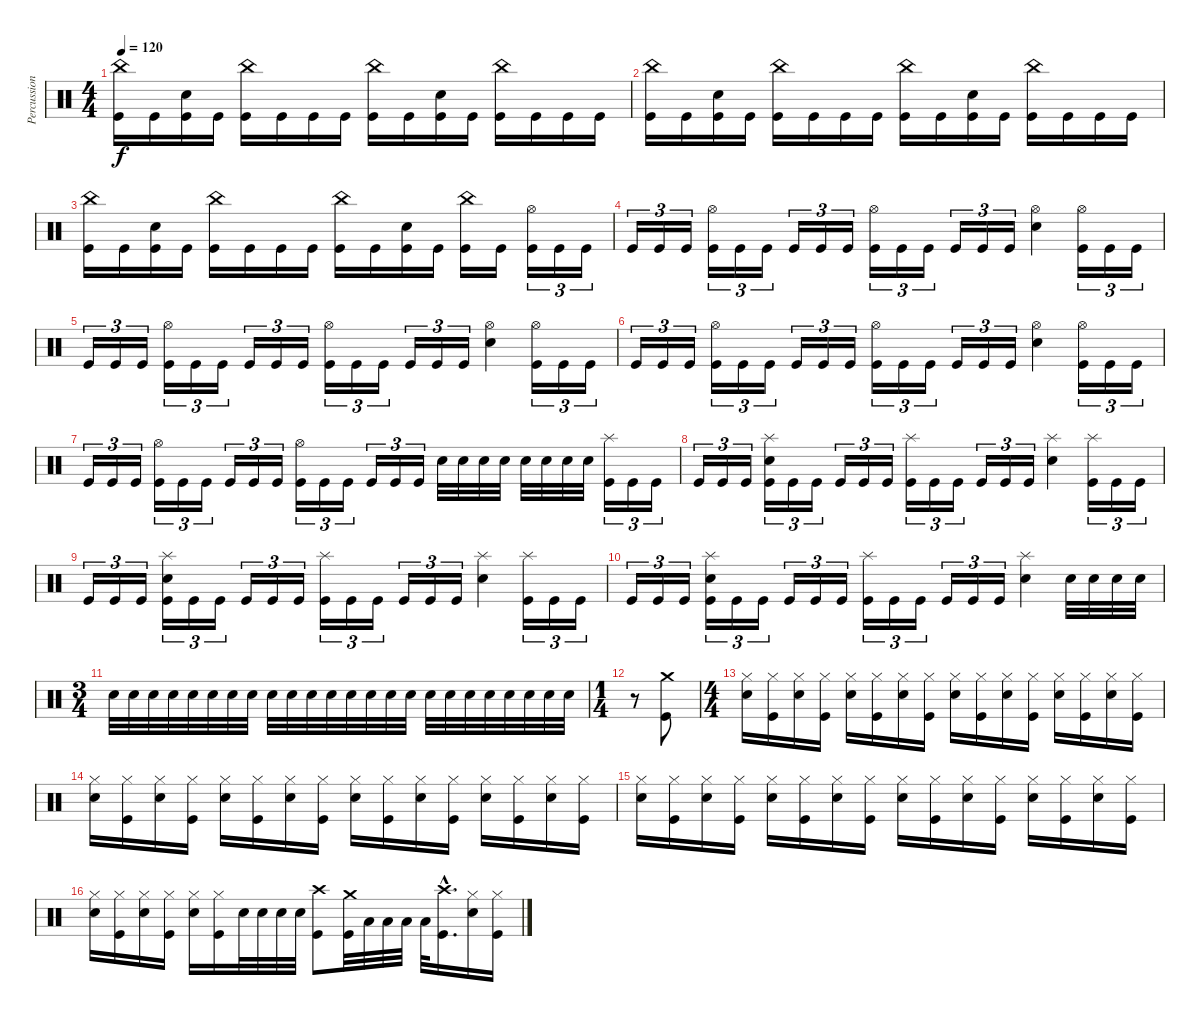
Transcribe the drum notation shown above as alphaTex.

\track ("Percussions" "Percussion") {instrument percussion}
\staff {score}
\articulation defaults
\ts (4 4)
\tempo 120
\clef neutral
\ks c
("Kick (hit)" "China (hit)").16{dy f} "Kick (hit)".16 ("Kick (hit)" "Electric Snare (hit)").16 "Kick (hit)".16 ("Kick (hit)" "China (hit)").16 "Kick (hit)".16 "Kick (hit)".16 "Kick (hit)".16 ("Kick (hit)" "China (hit)").16 "Kick (hit)".16 ("Kick (hit)" "Electric Snare (hit)").16 "Kick (hit)".16 ("Kick (hit)" "China (hit)").16 "Kick (hit)".16 "Kick (hit)".16 "Kick (hit)".16 |
("Kick (hit)" "China (hit)").16 "Kick (hit)".16 ("Kick (hit)" "Electric Snare (hit)").16 "Kick (hit)".16 ("Kick (hit)" "China (hit)").16 "Kick (hit)".16 "Kick (hit)".16 "Kick (hit)".16 ("Kick (hit)" "China (hit)").16 "Kick (hit)".16 ("Kick (hit)" "Electric Snare (hit)").16 "Kick (hit)".16 ("Kick (hit)" "China (hit)").16 "Kick (hit)".16 "Kick (hit)".16 "Kick (hit)".16 |
("Kick (hit)" "China (hit)").16 "Kick (hit)".16 ("Kick (hit)" "Electric Snare (hit)").16 "Kick (hit)".16 ("Kick (hit)" "China (hit)").16 "Kick (hit)".16 "Kick (hit)".16 "Kick (hit)".16 ("Kick (hit)" "China (hit)").16 "Kick (hit)".16 ("Kick (hit)" "Electric Snare (hit)").16 "Kick (hit)".16 ("Kick (hit)" "China (hit)").16 "Kick (hit)".16 ("Kick (hit)" "Hi-Hat (open)").16{tu (3 2)} "Kick (hit)".16{tu (3 2)} "Kick (hit)".16{tu (3 2)} |
"Kick (hit)".16{tu (3 2)} "Kick (hit)".16{tu (3 2)} "Kick (hit)".16{tu (3 2)} ("Kick (hit)" "Hi-Hat (open)").16{tu (3 2)} "Kick (hit)".16{tu (3 2)} "Kick (hit)".16{tu (3 2)} "Kick (hit)".16{tu (3 2)} "Kick (hit)".16{tu (3 2)} "Kick (hit)".16{tu (3 2)} ("Kick (hit)" "Hi-Hat (open)").16{tu (3 2)} "Kick (hit)".16{tu (3 2)} "Kick (hit)".16{tu (3 2)} "Kick (hit)".16{tu (3 2)} "Kick (hit)".16{tu (3 2)} "Kick (hit)".16{tu (3 2)} ("Electric Snare (hit)" "Hi-Hat (open)").4 ("Kick (hit)" "Hi-Hat (open)").16{tu (3 2)} "Kick (hit)".16{tu (3 2)} "Kick (hit)".16{tu (3 2)} |
"Kick (hit)".16{tu (3 2)} "Kick (hit)".16{tu (3 2)} "Kick (hit)".16{tu (3 2)} ("Kick (hit)" "Hi-Hat (open)").16{tu (3 2)} "Kick (hit)".16{tu (3 2)} "Kick (hit)".16{tu (3 2)} "Kick (hit)".16{tu (3 2)} "Kick (hit)".16{tu (3 2)} "Kick (hit)".16{tu (3 2)} ("Kick (hit)" "Hi-Hat (open)").16{tu (3 2)} "Kick (hit)".16{tu (3 2)} "Kick (hit)".16{tu (3 2)} "Kick (hit)".16{tu (3 2)} "Kick (hit)".16{tu (3 2)} "Kick (hit)".16{tu (3 2)} ("Electric Snare (hit)" "Hi-Hat (open)").4 ("Kick (hit)" "Hi-Hat (open)").16{tu (3 2)} "Kick (hit)".16{tu (3 2)} "Kick (hit)".16{tu (3 2)} |
"Kick (hit)".16{tu (3 2)} "Kick (hit)".16{tu (3 2)} "Kick (hit)".16{tu (3 2)} ("Kick (hit)" "Hi-Hat (open)").16{tu (3 2)} "Kick (hit)".16{tu (3 2)} "Kick (hit)".16{tu (3 2)} "Kick (hit)".16{tu (3 2)} "Kick (hit)".16{tu (3 2)} "Kick (hit)".16{tu (3 2)} ("Kick (hit)" "Hi-Hat (open)").16{tu (3 2)} "Kick (hit)".16{tu (3 2)} "Kick (hit)".16{tu (3 2)} "Kick (hit)".16{tu (3 2)} "Kick (hit)".16{tu (3 2)} "Kick (hit)".16{tu (3 2)} ("Electric Snare (hit)" "Hi-Hat (open)").4 ("Kick (hit)" "Hi-Hat (open)").16{tu (3 2)} "Kick (hit)".16{tu (3 2)} "Kick (hit)".16{tu (3 2)} |
"Kick (hit)".16{tu (3 2)} "Kick (hit)".16{tu (3 2)} "Kick (hit)".16{tu (3 2)} ("Kick (hit)" "Hi-Hat (open)").16{tu (3 2)} "Kick (hit)".16{tu (3 2)} "Kick (hit)".16{tu (3 2)} "Kick (hit)".16{tu (3 2)} "Kick (hit)".16{tu (3 2)} "Kick (hit)".16{tu (3 2)} ("Kick (hit)" "Hi-Hat (open)").16{tu (3 2)} "Kick (hit)".16{tu (3 2)} "Kick (hit)".16{tu (3 2)} "Kick (hit)".16{tu (3 2)} "Kick (hit)".16{tu (3 2)} "Kick (hit)".16{tu (3 2)} "Electric Snare (hit)".32 "Electric Snare (hit)".32 "Electric Snare (hit)".32 "Electric Snare (hit)".32 "Electric Snare (hit)".32 "Electric Snare (hit)".32 "Electric Snare (hit)".32 "Electric Snare (hit)".32 ("Kick (hit)" "Splash (hit)").16{tu (3 2)} "Kick (hit)".16{tu (3 2)} "Kick (hit)".16{tu (3 2)} |
"Kick (hit)".16{tu (3 2)} "Kick (hit)".16{tu (3 2)} "Kick (hit)".16{tu (3 2)} ("Kick (hit)" "Electric Snare (hit)" "Splash (hit)").16{tu (3 2)} "Kick (hit)".16{tu (3 2)} "Kick (hit)".16{tu (3 2)} "Kick (hit)".16{tu (3 2)} "Kick (hit)".16{tu (3 2)} "Kick (hit)".16{tu (3 2)} ("Kick (hit)" "Splash (hit)").16{tu (3 2)} "Kick (hit)".16{tu (3 2)} "Kick (hit)".16{tu (3 2)} "Kick (hit)".16{tu (3 2)} "Kick (hit)".16{tu (3 2)} "Kick (hit)".16{tu (3 2)} ("Electric Snare (hit)" "Splash (hit)").4 ("Kick (hit)" "Splash (hit)").16{tu (3 2)} "Kick (hit)".16{tu (3 2)} "Kick (hit)".16{tu (3 2)} |
"Kick (hit)".16{tu (3 2)} "Kick (hit)".16{tu (3 2)} "Kick (hit)".16{tu (3 2)} ("Kick (hit)" "Electric Snare (hit)" "Splash (hit)").16{tu (3 2)} "Kick (hit)".16{tu (3 2)} "Kick (hit)".16{tu (3 2)} "Kick (hit)".16{tu (3 2)} "Kick (hit)".16{tu (3 2)} "Kick (hit)".16{tu (3 2)} ("Kick (hit)" "Splash (hit)").16{tu (3 2)} "Kick (hit)".16{tu (3 2)} "Kick (hit)".16{tu (3 2)} "Kick (hit)".16{tu (3 2)} "Kick (hit)".16{tu (3 2)} "Kick (hit)".16{tu (3 2)} ("Electric Snare (hit)" "Splash (hit)").4 ("Kick (hit)" "Splash (hit)").16{tu (3 2)} "Kick (hit)".16{tu (3 2)} "Kick (hit)".16{tu (3 2)} |
"Kick (hit)".16{tu (3 2)} "Kick (hit)".16{tu (3 2)} "Kick (hit)".16{tu (3 2)} ("Kick (hit)" "Electric Snare (hit)" "Splash (hit)").16{tu (3 2)} "Kick (hit)".16{tu (3 2)} "Kick (hit)".16{tu (3 2)} "Kick (hit)".16{tu (3 2)} "Kick (hit)".16{tu (3 2)} "Kick (hit)".16{tu (3 2)} ("Kick (hit)" "Splash (hit)").16{tu (3 2)} "Kick (hit)".16{tu (3 2)} "Kick (hit)".16{tu (3 2)} "Kick (hit)".16{tu (3 2)} "Kick (hit)".16{tu (3 2)} "Kick (hit)".16{tu (3 2)} ("Electric Snare (hit)" "Splash (hit)").4 "Electric Snare (hit)".32 "Electric Snare (hit)".32 "Electric Snare (hit)".32 "Electric Snare (hit)".32 |
\ts (3 4)
"Electric Snare (hit)".32 "Electric Snare (hit)".32 "Electric Snare (hit)".32 "Electric Snare (hit)".32 "Electric Snare (hit)".32 "Electric Snare (hit)".32 "Electric Snare (hit)".32 "Electric Snare (hit)".32 "Electric Snare (hit)".32 "Electric Snare (hit)".32 "Electric Snare (hit)".32 "Electric Snare (hit)".32 "Electric Snare (hit)".32 "Electric Snare (hit)".32 "Electric Snare (hit)".32 "Electric Snare (hit)".32 "Electric Snare (hit)".32 "Electric Snare (hit)".32 "Electric Snare (hit)".32 "Electric Snare (hit)".32 "Electric Snare (hit)".32 "Electric Snare (hit)".32 "Electric Snare (hit)".32 "Electric Snare (hit)".32 |
\ts (1 4)
r.8 ("Kick (hit)" "Crash medium (hit)").8 |
\ts (4 4)
("Electric Snare (hit)" "Hi-Hat (closed)").16 ("Kick (hit)" "Hi-Hat (closed)").16 ("Electric Snare (hit)" "Hi-Hat (closed)").16 ("Kick (hit)" "Hi-Hat (closed)").16 ("Electric Snare (hit)" "Hi-Hat (closed)").16 ("Kick (hit)" "Hi-Hat (closed)").16 ("Electric Snare (hit)" "Hi-Hat (closed)").16 ("Kick (hit)" "Hi-Hat (closed)").16 ("Electric Snare (hit)" "Hi-Hat (closed)").16 ("Kick (hit)" "Hi-Hat (closed)").16 ("Electric Snare (hit)" "Hi-Hat (closed)").16 ("Kick (hit)" "Hi-Hat (closed)").16 ("Electric Snare (hit)" "Hi-Hat (closed)").16 ("Kick (hit)" "Hi-Hat (closed)").16 ("Electric Snare (hit)" "Hi-Hat (closed)").16 ("Kick (hit)" "Hi-Hat (closed)").16 |
("Electric Snare (hit)" "Hi-Hat (closed)").16 ("Kick (hit)" "Hi-Hat (closed)").16 ("Electric Snare (hit)" "Hi-Hat (closed)").16 ("Kick (hit)" "Hi-Hat (closed)").16 ("Electric Snare (hit)" "Hi-Hat (closed)").16 ("Kick (hit)" "Hi-Hat (closed)").16 ("Electric Snare (hit)" "Hi-Hat (closed)").16 ("Kick (hit)" "Hi-Hat (closed)").16 ("Electric Snare (hit)" "Hi-Hat (closed)").16 ("Kick (hit)" "Hi-Hat (closed)").16 ("Electric Snare (hit)" "Hi-Hat (closed)").16 ("Kick (hit)" "Hi-Hat (closed)").16 ("Electric Snare (hit)" "Hi-Hat (closed)").16 ("Kick (hit)" "Hi-Hat (closed)").16 ("Electric Snare (hit)" "Hi-Hat (closed)").16 ("Kick (hit)" "Hi-Hat (closed)").16 |
("Electric Snare (hit)" "Hi-Hat (closed)").16 ("Kick (hit)" "Hi-Hat (closed)").16 ("Electric Snare (hit)" "Hi-Hat (closed)").16 ("Kick (hit)" "Hi-Hat (closed)").16 ("Electric Snare (hit)" "Hi-Hat (closed)").16 ("Kick (hit)" "Hi-Hat (closed)").16 ("Electric Snare (hit)" "Hi-Hat (closed)").16 ("Kick (hit)" "Hi-Hat (closed)").16 ("Electric Snare (hit)" "Hi-Hat (closed)").16 ("Kick (hit)" "Hi-Hat (closed)").16 ("Electric Snare (hit)" "Hi-Hat (closed)").16 ("Kick (hit)" "Hi-Hat (closed)").16 ("Electric Snare (hit)" "Hi-Hat (closed)").16 ("Kick (hit)" "Hi-Hat (closed)").16 ("Electric Snare (hit)" "Hi-Hat (closed)").16 ("Kick (hit)" "Hi-Hat (closed)").16 |
("Electric Snare (hit)" "Hi-Hat (closed)").16 ("Kick (hit)" "Hi-Hat (closed)").16 ("Electric Snare (hit)" "Hi-Hat (closed)").16 ("Kick (hit)" "Hi-Hat (closed)").16 ("Electric Snare (hit)" "Hi-Hat (closed)").16 ("Kick (hit)" "Hi-Hat (closed)").16 "Electric Snare (hit)".32 "Electric Snare (hit)".32 "Electric Snare (hit)".32 "Electric Snare (hit)".32 ("Kick (hit)" "Crash high (hit)").8 ("Kick (hit)" "Crash medium (hit)").32 "Low Tom (hit)".32 "Low Tom (hit)".32 "Low Tom (hit)".32 "Low Tom (hit)".32 ("Kick (hit)"{hac} "Crash high (hit)"{hac}).16{d} ("Electric Snare (hit)" "Hi-Hat (closed)").16 ("Kick (hit)" "Hi-Hat (closed)").16
